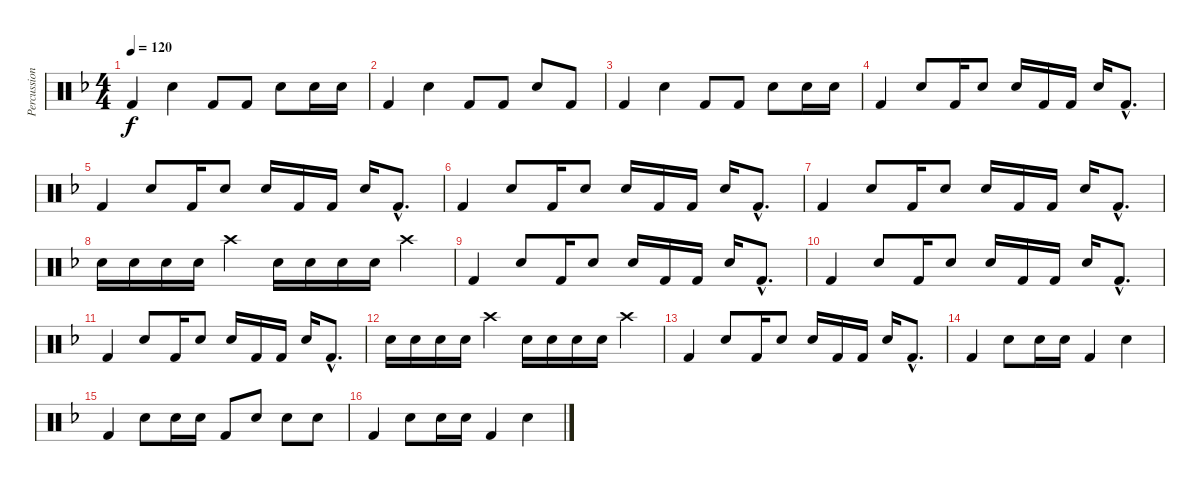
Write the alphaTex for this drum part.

\track ("Percussion" "Percussion") {instrument percussion}
\staff {score}
\articulation defaults
\ts (4 4)
\tempo 120
\clef neutral
\ks dminor "Kick (hit) 2".4{dy f} "Snare (hit) 2".4 "Kick (hit) 2".8 "Kick (hit) 2".8 "Snare (hit) 2".8 "Snare (hit) 2".16 "Snare (hit) 2".16
|
"Kick (hit) 2".4 "Snare (hit) 2".4 "Kick (hit) 2".8 "Kick (hit) 2".8 "Snare (hit) 2".8 "Kick (hit) 2".8 |
"Kick (hit) 2".4 "Snare (hit) 2".4 "Kick (hit) 2".8 "Kick (hit) 2".8 "Snare (hit) 2".8 "Snare (hit) 2".16 "Snare (hit) 2".16 |
"Kick (hit) 2".4 "Snare (hit) 2".8 "Kick (hit) 2".16 "Snare (hit) 2".8 "Snare (hit) 2".16 "Kick (hit) 2".16 "Kick (hit) 2".16 "Snare (hit) 2".16 "Kick (hit) 2"{hac}.8{d} |
"Kick (hit) 2".4 "Snare (hit) 2".8 "Kick (hit) 2".16 "Snare (hit) 2".8 "Snare (hit) 2".16 "Kick (hit) 2".16 "Kick (hit) 2".16 "Snare (hit) 2".16 "Kick (hit) 2"{hac}.8{d} |
"Kick (hit) 2".4 "Snare (hit) 2".8 "Kick (hit) 2".16 "Snare (hit) 2".8 "Snare (hit) 2".16 "Kick (hit) 2".16 "Kick (hit) 2".16 "Snare (hit) 2".16 "Kick (hit) 2"{hac}.8{d} |
"Kick (hit) 2".4 "Snare (hit) 2".8 "Kick (hit) 2".16 "Snare (hit) 2".8 "Snare (hit) 2".16 "Kick (hit) 2".16 "Kick (hit) 2".16 "Snare (hit) 2".16 "Kick (hit) 2"{hac}.8{d} |
"Snare (hit) 2".16 "Snare (hit) 2".16 "Snare (hit) 2".16 "Snare (hit) 2".16 "Crash high (hit)".4 "Snare (hit) 2".16 "Snare (hit) 2".16 "Snare (hit) 2".16 "Snare (hit) 2".16 "Crash high (hit)".4 |
"Kick (hit) 2".4 "Snare (hit) 2".8 "Kick (hit) 2".16 "Snare (hit) 2".8 "Snare (hit) 2".16 "Kick (hit) 2".16 "Kick (hit) 2".16 "Snare (hit) 2".16 "Kick (hit) 2"{hac}.8{d} |
"Kick (hit) 2".4 "Snare (hit) 2".8 "Kick (hit) 2".16 "Snare (hit) 2".8 "Snare (hit) 2".16 "Kick (hit) 2".16 "Kick (hit) 2".16 "Snare (hit) 2".16 "Kick (hit) 2"{hac}.8{d} |
"Kick (hit) 2".4 "Snare (hit) 2".8 "Kick (hit) 2".16 "Snare (hit) 2".8 "Snare (hit) 2".16 "Kick (hit) 2".16 "Kick (hit) 2".16 "Snare (hit) 2".16 "Kick (hit) 2"{hac}.8{d} |
"Snare (hit) 2".16 "Snare (hit) 2".16 "Snare (hit) 2".16 "Snare (hit) 2".16 "Crash high (hit)".4 "Snare (hit) 2".16 "Snare (hit) 2".16 "Snare (hit) 2".16 "Snare (hit) 2".16 "Crash high (hit)".4 |
"Kick (hit) 2".4 "Snare (hit) 2".8 "Kick (hit) 2".16 "Snare (hit) 2".8 "Snare (hit) 2".16 "Kick (hit) 2".16 "Kick (hit) 2".16 "Snare (hit) 2".16 "Kick (hit) 2"{hac}.8{d} |
"Kick (hit) 2".4 "Snare (hit) 2".8 "Snare (hit) 2".16 "Snare (hit) 2".16 "Kick (hit) 2".4 "Snare (hit) 2".4 |
"Kick (hit) 2".4 "Snare (hit) 2".8 "Snare (hit) 2".16 "Snare (hit) 2".16 "Kick (hit) 2".8 "Snare (hit) 2".8 "Snare (hit) 2".8 "Snare (hit) 2".8 |
"Kick (hit) 2".4 "Snare (hit) 2".8 "Snare (hit) 2".16 "Snare (hit) 2".16 "Kick (hit) 2".4 "Snare (hit) 2".4
